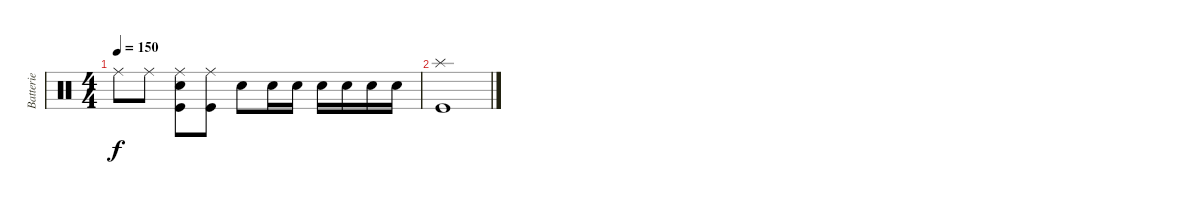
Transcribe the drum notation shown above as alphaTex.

\track ("Batterie" "Batterie") {instrument percussion}
\staff {score}
\articulation defaults
\ts (4 4)
\tempo 150
\clef neutral
\ks c "Ride (middle)".8{dy f} "Ride (middle)".8
("Ride (middle)" "Kick (hit)" "Electric Snare (hit)").8 ("Ride (middle)" "Kick (hit)").8 "Electric Snare (hit)".8 "Electric Snare (hit)".16 "Electric Snare (hit)".16 "Electric Snare (hit)".16 "Electric Snare (hit)".16 "Electric Snare (hit)".16 "Electric Snare (hit)".16 |
("Splash (hit)" "Kick (hit)").1
